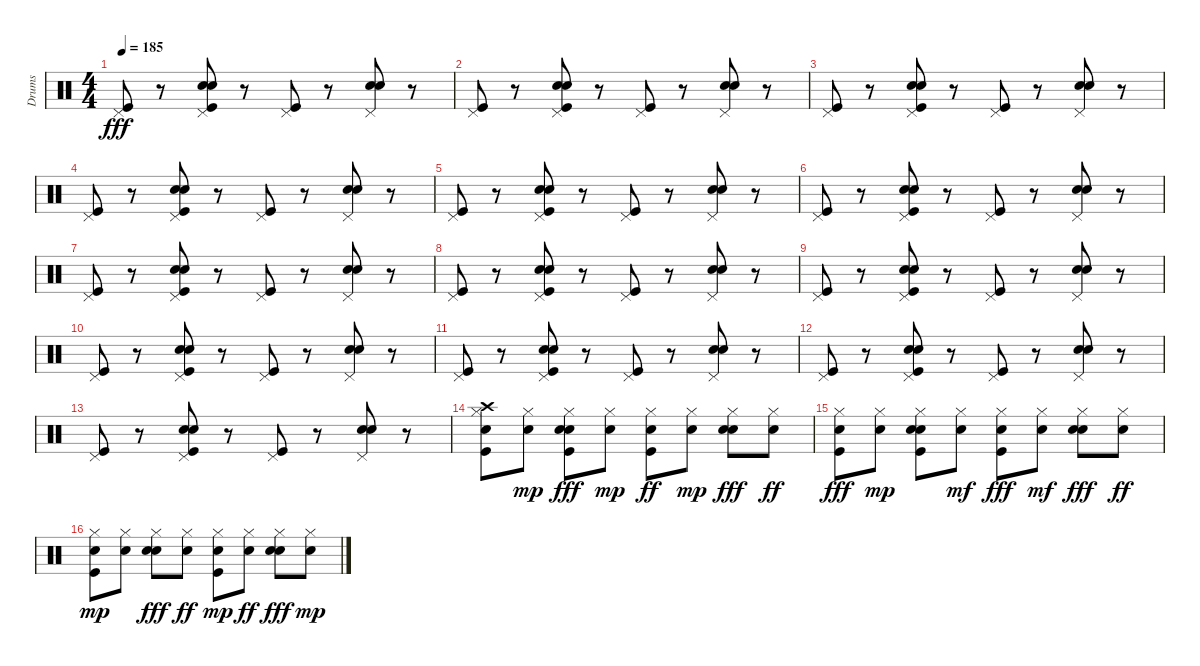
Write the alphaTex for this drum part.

\track ("Drums" "Drums") {instrument percussion}
\staff {score}
\articulation defaults
\ts (4 4)
\tempo 185
\clef neutral
\ks c
("Pedal Hi-Hat (hit)" "Kick (hit)").8{dy fff} r.8 ("Pedal Hi-Hat (hit)" "Kick (hit)" "Hand Clap (hit)" "Snare (hit) 2").8 r.8 ("Pedal Hi-Hat (hit)" "Kick (hit)").8 r.8 ("Snare (hit) 2" "Pedal Hi-Hat (hit)" "Hand Clap (hit)").8 r.8 |
("Pedal Hi-Hat (hit)" "Kick (hit)").8 r.8 ("Pedal Hi-Hat (hit)" "Kick (hit)" "Hand Clap (hit)" "Snare (hit) 2").8 r.8 ("Pedal Hi-Hat (hit)" "Kick (hit)").8 r.8 ("Snare (hit) 2" "Pedal Hi-Hat (hit)" "Hand Clap (hit)").8 r.8 |
("Pedal Hi-Hat (hit)" "Kick (hit)").8 r.8 ("Pedal Hi-Hat (hit)" "Kick (hit)" "Hand Clap (hit)" "Snare (hit) 2").8 r.8 ("Pedal Hi-Hat (hit)" "Kick (hit)").8 r.8 ("Snare (hit) 2" "Pedal Hi-Hat (hit)" "Hand Clap (hit)").8 r.8 |
("Pedal Hi-Hat (hit)" "Kick (hit)").8 r.8 ("Pedal Hi-Hat (hit)" "Kick (hit)" "Hand Clap (hit)" "Snare (hit) 2").8 r.8 ("Pedal Hi-Hat (hit)" "Kick (hit)").8 r.8 ("Snare (hit) 2" "Pedal Hi-Hat (hit)" "Hand Clap (hit)").8 r.8 |
("Pedal Hi-Hat (hit)" "Kick (hit)").8 r.8 ("Pedal Hi-Hat (hit)" "Kick (hit)" "Hand Clap (hit)" "Snare (hit) 2").8 r.8 ("Pedal Hi-Hat (hit)" "Kick (hit)").8 r.8 ("Snare (hit) 2" "Pedal Hi-Hat (hit)" "Hand Clap (hit)").8 r.8 |
("Pedal Hi-Hat (hit)" "Kick (hit)").8 r.8 ("Pedal Hi-Hat (hit)" "Kick (hit)" "Hand Clap (hit)" "Snare (hit) 2").8 r.8 ("Pedal Hi-Hat (hit)" "Kick (hit)").8 r.8 ("Snare (hit) 2" "Pedal Hi-Hat (hit)" "Hand Clap (hit)").8 r.8 |
("Pedal Hi-Hat (hit)" "Kick (hit)").8 r.8 ("Pedal Hi-Hat (hit)" "Kick (hit)" "Hand Clap (hit)" "Snare (hit) 2").8 r.8 ("Pedal Hi-Hat (hit)" "Kick (hit)").8 r.8 ("Snare (hit) 2" "Pedal Hi-Hat (hit)" "Hand Clap (hit)").8 r.8 |
("Pedal Hi-Hat (hit)" "Kick (hit)").8 r.8 ("Pedal Hi-Hat (hit)" "Kick (hit)" "Hand Clap (hit)" "Snare (hit) 2").8 r.8 ("Pedal Hi-Hat (hit)" "Kick (hit)").8 r.8 ("Snare (hit) 2" "Pedal Hi-Hat (hit)" "Hand Clap (hit)").8 r.8 |
("Pedal Hi-Hat (hit)" "Kick (hit)").8 r.8 ("Pedal Hi-Hat (hit)" "Kick (hit)" "Hand Clap (hit)" "Snare (hit) 2").8 r.8 ("Pedal Hi-Hat (hit)" "Kick (hit)").8 r.8 ("Snare (hit) 2" "Pedal Hi-Hat (hit)" "Hand Clap (hit)").8 r.8 |
("Pedal Hi-Hat (hit)" "Kick (hit)").8 r.8 ("Pedal Hi-Hat (hit)" "Kick (hit)" "Hand Clap (hit)" "Snare (hit) 2").8 r.8 ("Pedal Hi-Hat (hit)" "Kick (hit)").8 r.8 ("Snare (hit) 2" "Pedal Hi-Hat (hit)" "Hand Clap (hit)").8 r.8 |
("Pedal Hi-Hat (hit)" "Kick (hit)").8 r.8 ("Pedal Hi-Hat (hit)" "Kick (hit)" "Hand Clap (hit)" "Snare (hit) 2").8 r.8 ("Pedal Hi-Hat (hit)" "Kick (hit)").8 r.8 ("Snare (hit) 2" "Pedal Hi-Hat (hit)" "Hand Clap (hit)").8 r.8 |
("Pedal Hi-Hat (hit)" "Kick (hit)").8 r.8 ("Pedal Hi-Hat (hit)" "Kick (hit)" "Hand Clap (hit)" "Snare (hit) 2").8 r.8 ("Pedal Hi-Hat (hit)" "Kick (hit)").8 r.8 ("Snare (hit) 2" "Pedal Hi-Hat (hit)" "Hand Clap (hit)").8 r.8 |
("Pedal Hi-Hat (hit)" "Kick (hit)").8 r.8 ("Pedal Hi-Hat (hit)" "Kick (hit)" "Hand Clap (hit)" "Snare (hit) 2").8 r.8 ("Pedal Hi-Hat (hit)" "Kick (hit)").8 r.8 ("Snare (hit) 2" "Pedal Hi-Hat (hit)" "Hand Clap (hit)").8 r.8 |
("Snare (hit) 2" "Crash high (hit)" "Hi-Hat (closed)" "Kick (hit)").8 ("Hi-Hat (closed)" "Snare (hit) 2").8{dy mp} ("Snare (hit) 2" "Hi-Hat (closed)" "Kick (hit)" "Hand Clap (hit)").8{dy fff} ("Hi-Hat (closed)" "Snare (hit) 2").8{dy mp} ("Kick (hit)" "Snare (hit) 2" "Hi-Hat (closed)").8{dy ff} ("Hi-Hat (closed)" "Snare (hit) 2").8{dy mp} ("Snare (hit) 2" "Hand Clap (hit)" "Hi-Hat (closed)").8{dy fff} ("Snare (hit) 2" "Hi-Hat (closed)").8{dy ff} |
("Snare (hit) 2" "Hi-Hat (closed)" "Kick (hit)").8{dy fff} ("Hi-Hat (closed)" "Snare (hit) 2").8{dy mp} ("Hi-Hat (closed)" "Snare (hit) 2" "Hand Clap (hit)" "Kick (hit)").8 ("Hi-Hat (closed)" "Snare (hit) 2").8{dy mf} ("Snare (hit) 2" "Hi-Hat (closed)" "Kick (hit)").8{dy fff} ("Hi-Hat (closed)" "Snare (hit) 2").8{dy mf} ("Hand Clap (hit)" "Snare (hit) 2" "Hi-Hat (closed)").8{dy fff} ("Snare (hit) 2" "Hi-Hat (closed)").8{dy ff} |
("Kick (hit)" "Hi-Hat (closed)" "Snare (hit) 2").8{dy mp} ("Hi-Hat (closed)" "Snare (hit) 2").8 ("Hi-Hat (closed)" "Snare (hit) 2" "Hand Clap (hit)").8{dy fff} ("Snare (hit) 2" "Hi-Hat (closed)").8{dy ff} ("Kick (hit)" "Hi-Hat (closed)" "Snare (hit) 2").8{dy mp} ("Snare (hit) 2" "Hi-Hat (closed)").8{dy ff} ("Hi-Hat (closed)" "Hand Clap (hit)" "Snare (hit) 2").8{dy fff} ("Hi-Hat (closed)" "Snare (hit) 2").8{dy mp}
